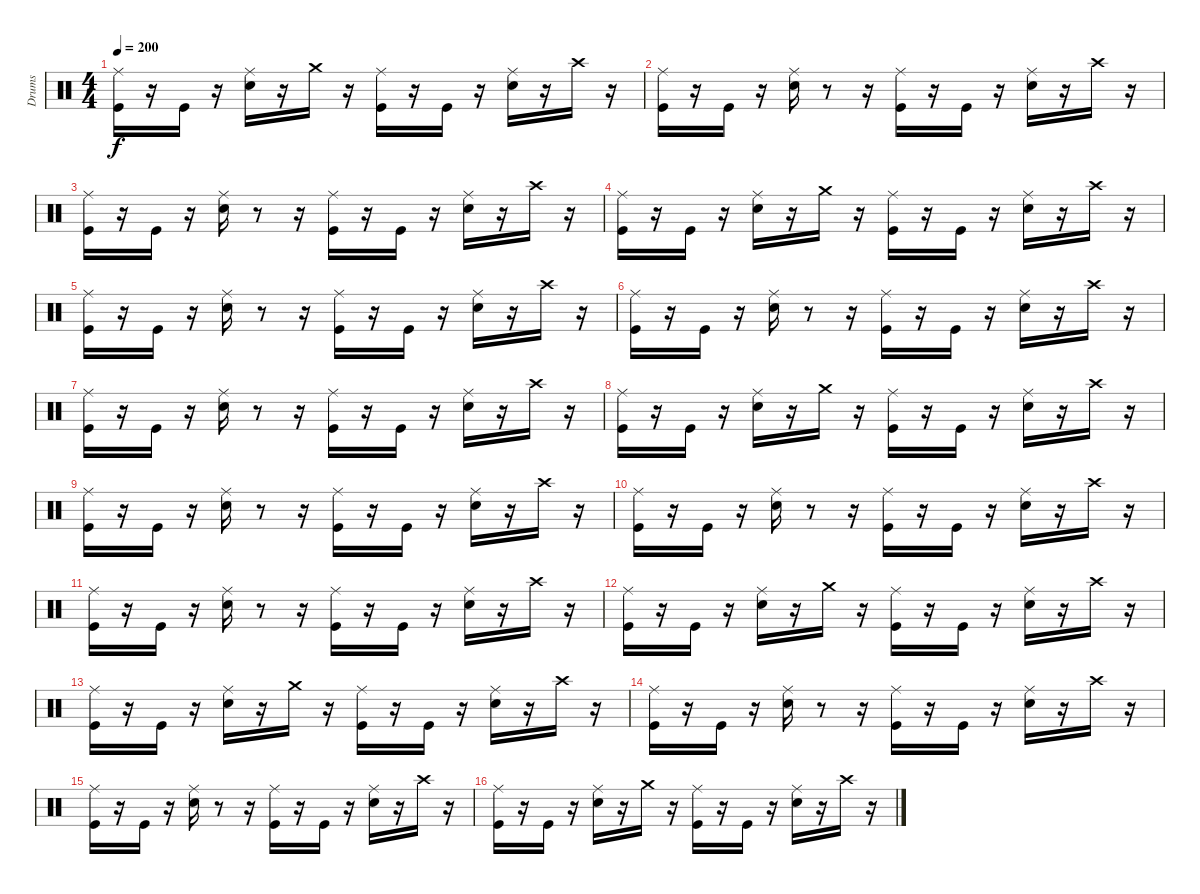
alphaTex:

\track ("Drums" "Drums") {instrument percussion}
\staff {score}
\articulation defaults
\ts (4 4)
\tempo 200
\clef neutral
\ks c
("Kick (hit)" "Ride (middle)").16{dy f} r.16 "Kick (hit)".16 r.16 ("Snare (hit) 2" "Ride (middle)").16 r.16 "Crash medium (hit)".16 r.16 ("Ride (middle)" "Kick (hit)").16 r.16 "Kick (hit)".16 r.16 ("Snare (hit) 2" "Ride (middle)").16 r.16 "Crash high (hit)".16 r.16 |
("Kick (hit)" "Ride (middle)").16 r.16 "Kick (hit)".16 r.16 ("Snare (hit) 2" "Ride (middle)").16 r.8 r.16 ("Ride (middle)" "Kick (hit)").16 r.16 "Kick (hit)".16 r.16 ("Snare (hit) 2" "Ride (middle)").16 r.16 "Crash high (hit)".16 r.16 |
("Kick (hit)" "Ride (middle)").16 r.16 "Kick (hit)".16 r.16 ("Snare (hit) 2" "Ride (middle)").16 r.8 r.16 ("Ride (middle)" "Kick (hit)").16 r.16 "Kick (hit)".16 r.16 ("Snare (hit) 2" "Ride (middle)").16 r.16 "Crash high (hit)".16 r.16 |
("Kick (hit)" "Ride (middle)").16 r.16 "Kick (hit)".16 r.16 ("Snare (hit) 2" "Ride (middle)").16 r.16 "Crash medium (hit)".16 r.16 ("Ride (middle)" "Kick (hit)").16 r.16 "Kick (hit)".16 r.16 ("Snare (hit) 2" "Ride (middle)").16 r.16 "Crash high (hit)".16 r.16 |
("Kick (hit)" "Ride (middle)").16 r.16 "Kick (hit)".16 r.16 ("Snare (hit) 2" "Ride (middle)").16 r.8 r.16 ("Ride (middle)" "Kick (hit)").16 r.16 "Kick (hit)".16 r.16 ("Snare (hit) 2" "Ride (middle)").16 r.16 "Crash high (hit)".16 r.16 |
("Kick (hit)" "Ride (middle)").16 r.16 "Kick (hit)".16 r.16 ("Snare (hit) 2" "Ride (middle)").16 r.8 r.16 ("Ride (middle)" "Kick (hit)").16 r.16 "Kick (hit)".16 r.16 ("Snare (hit) 2" "Ride (middle)").16 r.16 "Crash high (hit)".16 r.16 |
("Kick (hit)" "Ride (middle)").16 r.16 "Kick (hit)".16 r.16 ("Snare (hit) 2" "Ride (middle)").16 r.8 r.16 ("Ride (middle)" "Kick (hit)").16 r.16 "Kick (hit)".16 r.16 ("Snare (hit) 2" "Ride (middle)").16 r.16 "Crash high (hit)".16 r.16 |
("Kick (hit)" "Ride (middle)").16 r.16 "Kick (hit)".16 r.16 ("Snare (hit) 2" "Ride (middle)").16 r.16 "Crash medium (hit)".16 r.16 ("Ride (middle)" "Kick (hit)").16 r.16 "Kick (hit)".16 r.16 ("Snare (hit) 2" "Ride (middle)").16 r.16 "Crash high (hit)".16 r.16 |
("Kick (hit)" "Ride (middle)").16 r.16 "Kick (hit)".16 r.16 ("Snare (hit) 2" "Ride (middle)").16 r.8 r.16 ("Ride (middle)" "Kick (hit)").16 r.16 "Kick (hit)".16 r.16 ("Snare (hit) 2" "Ride (middle)").16 r.16 "Crash high (hit)".16 r.16 |
("Kick (hit)" "Ride (middle)").16 r.16 "Kick (hit)".16 r.16 ("Snare (hit) 2" "Ride (middle)").16 r.8 r.16 ("Ride (middle)" "Kick (hit)").16 r.16 "Kick (hit)".16 r.16 ("Snare (hit) 2" "Ride (middle)").16 r.16 "Crash high (hit)".16 r.16 |
("Kick (hit)" "Ride (middle)").16 r.16 "Kick (hit)".16 r.16 ("Snare (hit) 2" "Ride (middle)").16 r.8 r.16 ("Ride (middle)" "Kick (hit)").16 r.16 "Kick (hit)".16 r.16 ("Snare (hit) 2" "Ride (middle)").16 r.16 "Crash high (hit)".16 r.16 |
("Kick (hit)" "Ride (middle)").16 r.16 "Kick (hit)".16 r.16 ("Snare (hit) 2" "Ride (middle)").16 r.16 "Crash medium (hit)".16 r.16 ("Ride (middle)" "Kick (hit)").16 r.16 "Kick (hit)".16 r.16 ("Snare (hit) 2" "Ride (middle)").16 r.16 "Crash high (hit)".16 r.16 |
("Kick (hit)" "Ride (middle)").16 r.16 "Kick (hit)".16 r.16 ("Snare (hit) 2" "Ride (middle)").16 r.16 "Crash medium (hit)".16 r.16 ("Ride (middle)" "Kick (hit)").16 r.16 "Kick (hit)".16 r.16 ("Snare (hit) 2" "Ride (middle)").16 r.16 "Crash high (hit)".16 r.16 |
("Kick (hit)" "Ride (middle)").16 r.16 "Kick (hit)".16 r.16 ("Snare (hit) 2" "Ride (middle)").16 r.8 r.16 ("Ride (middle)" "Kick (hit)").16 r.16 "Kick (hit)".16 r.16 ("Snare (hit) 2" "Ride (middle)").16 r.16 "Crash high (hit)".16 r.16 |
("Kick (hit)" "Ride (middle)").16 r.16 "Kick (hit)".16 r.16 ("Snare (hit) 2" "Ride (middle)").16 r.8 r.16 ("Ride (middle)" "Kick (hit)").16 r.16 "Kick (hit)".16 r.16 ("Snare (hit) 2" "Ride (middle)").16 r.16 "Crash high (hit)".16 r.16 |
("Kick (hit)" "Ride (middle)").16 r.16 "Kick (hit)".16 r.16 ("Snare (hit) 2" "Ride (middle)").16 r.16 "Crash medium (hit)".16 r.16 ("Ride (middle)" "Kick (hit)").16 r.16 "Kick (hit)".16 r.16 ("Snare (hit) 2" "Ride (middle)").16 r.16 "Crash high (hit)".16 r.16
